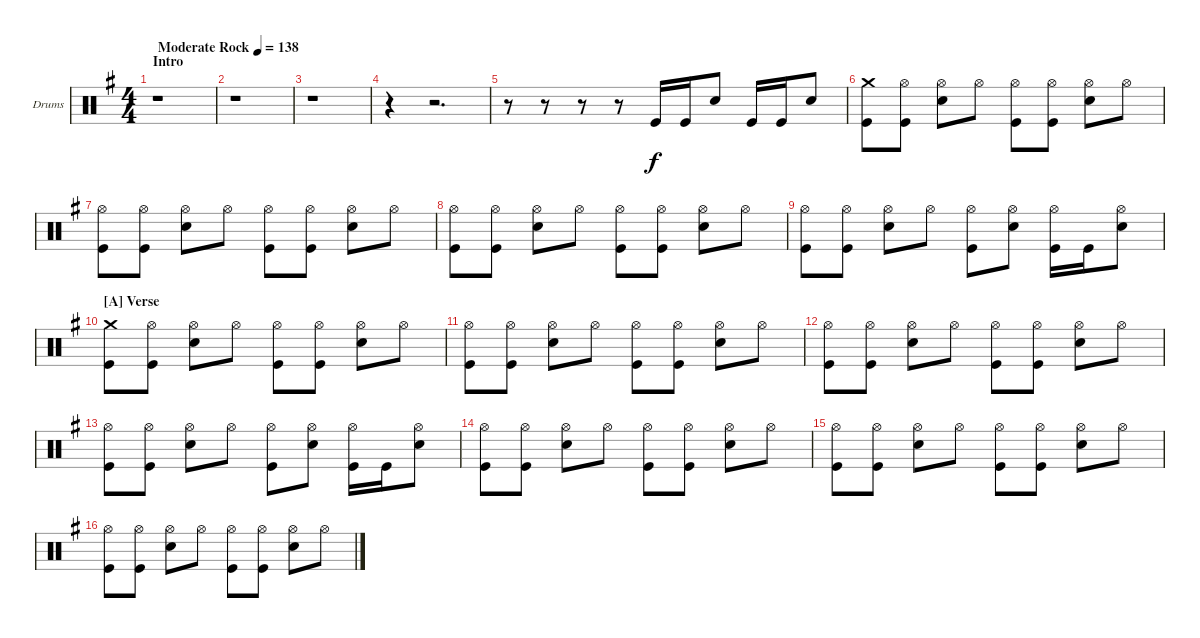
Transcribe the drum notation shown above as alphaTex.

\defaultSystemsLayout 4
\bracketExtendMode groupsimilarinstruments
\firstSystemTrackNameOrientation horizontal
\otherSystemsTrackNameOrientation horizontal
\track ("Drumkit" "Drums") {instrument percussion}
\staff {score}
\articulation defaults
\ts (4 4)
\section ("" "Intro")
\tempo (138 "Moderate Rock")
\clef neutral
\scale
1.07314
\ks g
r.1{dy f} |
\scale
0.92686 r.1 |
\scale
1.04288 r.1 |
\scale
0.957125 r.4 r.2{d} |
\scale
1.04288 r.8 r.8 r.8 r.8 "Kick (hit)".16 "Kick (hit)".16 "Snare (hit) 2".8 "Kick (hit)".16 "Kick (hit)".16 "Snare (hit) 2".8 |
\scale
0.957125 ("Crash medium (hit)" "Kick (hit)").8 ("Hi-Hat (open)" "Kick (hit)").8 ("Hi-Hat (open)" "Snare (hit) 2").8 "Hi-Hat (open)".8 ("Hi-Hat (open)" "Kick (hit)").8 ("Hi-Hat (open)" "Kick (hit)").8 ("Hi-Hat (open)" "Snare (hit) 2").8 "Hi-Hat (open)".8 |
\scale
1.04288 ("Hi-Hat (open)" "Kick (hit)").8 ("Hi-Hat (open)" "Kick (hit)").8 ("Hi-Hat (open)" "Snare (hit) 2").8 "Hi-Hat (open)".8 ("Hi-Hat (open)" "Kick (hit)").8 ("Hi-Hat (open)" "Kick (hit)").8 ("Hi-Hat (open)" "Snare (hit) 2").8 "Hi-Hat (open)".8 |
\scale
0.957125 ("Hi-Hat (open)" "Kick (hit)").8 ("Hi-Hat (open)" "Kick (hit)").8 ("Hi-Hat (open)" "Snare (hit) 2").8 "Hi-Hat (open)".8 ("Hi-Hat (open)" "Kick (hit)").8 ("Hi-Hat (open)" "Kick (hit)").8 ("Hi-Hat (open)" "Snare (hit) 2").8 "Hi-Hat (open)".8 |
\scale
1.04288 ("Hi-Hat (open)" "Kick (hit)").8 ("Hi-Hat (open)" "Kick (hit)").8 ("Hi-Hat (open)" "Snare (hit) 2").8 "Hi-Hat (open)".8 ("Hi-Hat (open)" "Kick (hit)").8 ("Hi-Hat (open)" "Snare (hit) 2").8 ("Hi-Hat (open)" "Kick (hit)").16 "Kick (hit)".16 ("Hi-Hat (open)" "Snare (hit) 2").8 |
\section ("A" "Verse")
\scale
0.957125 ("Crash medium (hit)" "Kick (hit)").8 ("Hi-Hat (open)" "Kick (hit)").8 ("Hi-Hat (open)" "Snare (hit) 2").8 "Hi-Hat (open)".8 ("Hi-Hat (open)" "Kick (hit)").8 ("Hi-Hat (open)" "Kick (hit)").8 ("Hi-Hat (open)" "Snare (hit) 2").8 "Hi-Hat (open)".8 |
\scale
1.04288 ("Hi-Hat (open)" "Kick (hit)").8 ("Hi-Hat (open)" "Kick (hit)").8 ("Hi-Hat (open)" "Snare (hit) 2").8 "Hi-Hat (open)".8 ("Hi-Hat (open)" "Kick (hit)").8 ("Hi-Hat (open)" "Kick (hit)").8 ("Hi-Hat (open)" "Snare (hit) 2").8 "Hi-Hat (open)".8 |
\scale
0.957125 ("Hi-Hat (open)" "Kick (hit)").8 ("Hi-Hat (open)" "Kick (hit)").8 ("Hi-Hat (open)" "Snare (hit) 2").8 "Hi-Hat (open)".8 ("Hi-Hat (open)" "Kick (hit)").8 ("Hi-Hat (open)" "Kick (hit)").8 ("Hi-Hat (open)" "Snare (hit) 2").8 "Hi-Hat (open)".8 |
\scale
1.04288 ("Hi-Hat (open)" "Kick (hit)").8 ("Hi-Hat (open)" "Kick (hit)").8 ("Hi-Hat (open)" "Snare (hit) 2").8 "Hi-Hat (open)".8 ("Hi-Hat (open)" "Kick (hit)").8 ("Hi-Hat (open)" "Snare (hit) 2").8 ("Hi-Hat (open)" "Kick (hit)").16 "Kick (hit)".16 ("Hi-Hat (open)" "Snare (hit) 2").8 |
\scale
0.957125 ("Hi-Hat (open)" "Kick (hit)").8 ("Hi-Hat (open)" "Kick (hit)").8 ("Hi-Hat (open)" "Snare (hit) 2").8 "Hi-Hat (open)".8 ("Hi-Hat (open)" "Kick (hit)").8 ("Hi-Hat (open)" "Kick (hit)").8 ("Hi-Hat (open)" "Snare (hit) 2").8 "Hi-Hat (open)".8 |
\scale
1.04288 ("Hi-Hat (open)" "Kick (hit)").8 ("Hi-Hat (open)" "Kick (hit)").8 ("Hi-Hat (open)" "Snare (hit) 2").8 "Hi-Hat (open)".8 ("Hi-Hat (open)" "Kick (hit)").8 ("Hi-Hat (open)" "Kick (hit)").8 ("Hi-Hat (open)" "Snare (hit) 2").8 "Hi-Hat (open)".8 |
\scale
0.957125 ("Hi-Hat (open)" "Kick (hit)").8 ("Hi-Hat (open)" "Kick (hit)").8 ("Hi-Hat (open)" "Snare (hit) 2").8 "Hi-Hat (open)".8 ("Hi-Hat (open)" "Kick (hit)").8 ("Hi-Hat (open)" "Kick (hit)").8 ("Hi-Hat (open)" "Snare (hit) 2").8 "Hi-Hat (open)".8
